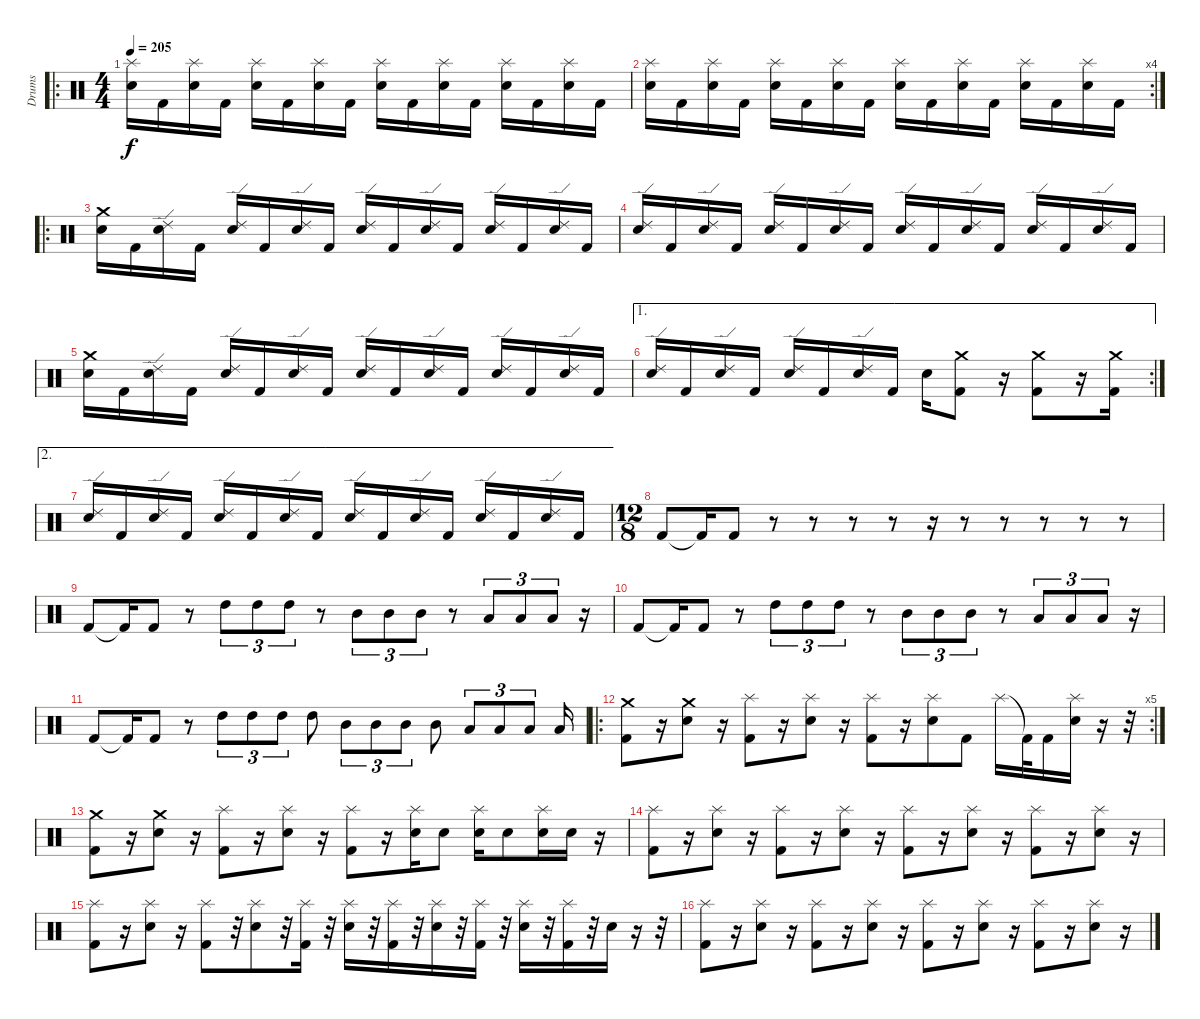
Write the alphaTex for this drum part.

\track ("Drums" "Drums") {instrument percussion}
\staff {score}
\articulation defaults
\ro
\ts (4 4)
\tempo 205
\clef neutral
\ks c
("Splash (hit)" "Electric Snare (hit)").16{dy f} "Kick (hit) 2".16 ("Splash (hit)" "Electric Snare (hit)").16 "Kick (hit) 2".16 ("Splash (hit)" "Electric Snare (hit)").16 "Kick (hit) 2".16 ("Splash (hit)" "Electric Snare (hit)").16 "Kick (hit) 2".16 ("Splash (hit)" "Electric Snare (hit)").16 "Kick (hit) 2".16 ("Splash (hit)" "Electric Snare (hit)").16 "Kick (hit) 2".16 ("Splash (hit)" "Electric Snare (hit)").16 "Kick (hit) 2".16 ("Splash (hit)" "Electric Snare (hit)").16 "Kick (hit) 2".16 |
\rc 4
("Splash (hit)" "Electric Snare (hit)").16 "Kick (hit) 2".16 ("Splash (hit)" "Electric Snare (hit)").16 "Kick (hit) 2".16 ("Splash (hit)" "Electric Snare (hit)").16 "Kick (hit) 2".16 ("Splash (hit)" "Electric Snare (hit)").16 "Kick (hit) 2".16 ("Splash (hit)" "Electric Snare (hit)").16 "Kick (hit) 2".16 ("Splash (hit)" "Electric Snare (hit)").16 "Kick (hit) 2".16 ("Splash (hit)" "Electric Snare (hit)").16 "Kick (hit) 2".16 ("Splash (hit)" "Electric Snare (hit)").16 "Kick (hit) 2".16 |
\ro
("Crash medium (hit)" "Electric Snare (hit)").16 "Kick (hit) 2".16 ("Ride (edge) 2" "Electric Snare (hit)").16 "Kick (hit) 2".16 ("Ride (edge) 2" "Electric Snare (hit)").16 "Kick (hit) 2".16 ("Ride (edge) 2" "Electric Snare (hit)").16 "Kick (hit) 2".16 ("Ride (edge) 2" "Electric Snare (hit)").16 "Kick (hit) 2".16 ("Ride (edge) 2" "Electric Snare (hit)").16 "Kick (hit) 2".16 ("Ride (edge) 2" "Electric Snare (hit)").16 "Kick (hit) 2".16 ("Ride (edge) 2" "Electric Snare (hit)").16 "Kick (hit) 2".16 |
("Ride (edge) 2" "Electric Snare (hit)").16 "Kick (hit) 2".16 ("Ride (edge) 2" "Electric Snare (hit)").16 "Kick (hit) 2".16 ("Ride (edge) 2" "Electric Snare (hit)").16 "Kick (hit) 2".16 ("Ride (edge) 2" "Electric Snare (hit)").16 "Kick (hit) 2".16 ("Ride (edge) 2" "Electric Snare (hit)").16 "Kick (hit) 2".16 ("Ride (edge) 2" "Electric Snare (hit)").16 "Kick (hit) 2".16 ("Ride (edge) 2" "Electric Snare (hit)").16 "Kick (hit) 2".16 ("Ride (edge) 2" "Electric Snare (hit)").16 "Kick (hit) 2".16 |
("Crash medium (hit)" "Electric Snare (hit)").16 "Kick (hit) 2".16 ("Ride (edge) 2" "Electric Snare (hit)").16 "Kick (hit) 2".16 ("Ride (edge) 2" "Electric Snare (hit)").16 "Kick (hit) 2".16 ("Ride (edge) 2" "Electric Snare (hit)").16 "Kick (hit) 2".16 ("Ride (edge) 2" "Electric Snare (hit)").16 "Kick (hit) 2".16 ("Ride (edge) 2" "Electric Snare (hit)").16 "Kick (hit) 2".16 ("Ride (edge) 2" "Electric Snare (hit)").16 "Kick (hit) 2".16 ("Ride (edge) 2" "Electric Snare (hit)").16 "Kick (hit) 2".16 |
\ae 1
\rc 2
("Ride (edge) 2" "Electric Snare (hit)").16 "Kick (hit) 2".16 ("Ride (edge) 2" "Electric Snare (hit)").16 "Kick (hit) 2".16 ("Ride (edge) 2" "Electric Snare (hit)").16 "Kick (hit) 2".16 ("Ride (edge) 2" "Electric Snare (hit)").16 "Kick (hit) 2".16 "Electric Snare (hit)".16 ("Crash medium (hit)" "Kick (hit) 2").8 r.16 ("Crash medium (hit)" "Kick (hit) 2").8 r.16 ("Crash medium (hit)" "Kick (hit) 2").16 |
\ae 2
("Ride (edge) 2" "Electric Snare (hit)").16 "Kick (hit) 2".16 ("Ride (edge) 2" "Electric Snare (hit)").16 "Kick (hit) 2".16 ("Ride (edge) 2" "Electric Snare (hit)").16 "Kick (hit) 2".16 ("Ride (edge) 2" "Electric Snare (hit)").16 "Kick (hit) 2".16 ("Ride (edge) 2" "Electric Snare (hit)").16 "Kick (hit) 2".16 ("Ride (edge) 2" "Electric Snare (hit)").16 "Kick (hit) 2".16 ("Ride (edge) 2" "Electric Snare (hit)").16 "Kick (hit) 2".16 ("Ride (edge) 2" "Electric Snare (hit)").16 "Kick (hit) 2".16 |
\ts (12 8)
"Kick (hit) 2".8 "Kick (hit) 2"{t}.16 "Kick (hit) 2".8 r.8 r.8 r.8 r.8 r.16 r.8 r.8 r.8 r.8 r.8 |
"Kick (hit) 2".8 "Kick (hit) 2"{t}.16 "Kick (hit) 2".8 r.8 "High Tom (hit)".8{tu (3 2)} "High Tom (hit)".8{tu (3 2)} "High Tom (hit)".8{tu (3 2)} r.8 "Mid Tom (hit)".8{tu (3 2)} "Mid Tom (hit)".8{tu (3 2)} "Mid Tom (hit)".8{tu (3 2)} r.8 "Low Tom (hit)".8{tu (3 2)} "Low Tom (hit)".8{tu (3 2)} "Low Tom (hit)".8{tu (3 2)} r.16 |
"Kick (hit) 2".8 "Kick (hit) 2"{t}.16 "Kick (hit) 2".8 r.8 "High Tom (hit)".8{tu (3 2)} "High Tom (hit)".8{tu (3 2)} "High Tom (hit)".8{tu (3 2)} r.8 "Mid Tom (hit)".8{tu (3 2)} "Mid Tom (hit)".8{tu (3 2)} "Mid Tom (hit)".8{tu (3 2)} r.8 "Low Tom (hit)".8{tu (3 2)} "Low Tom (hit)".8{tu (3 2)} "Low Tom (hit)".8{tu (3 2)} r.16 |
"Kick (hit) 2".8 "Kick (hit) 2"{t}.16 "Kick (hit) 2".8 r.8 "High Tom (hit)".8{tu (3 2)} "High Tom (hit)".8{tu (3 2)} "High Tom (hit)".8{tu (3 2)} "High Tom (hit)".8 "Mid Tom (hit)".8{tu (3 2)} "Mid Tom (hit)".8{tu (3 2)} "Mid Tom (hit)".8{tu (3 2)} "Mid Tom (hit)".8 "Low Tom (hit)".8{tu (3 2)} "Low Tom (hit)".8{tu (3 2)} "Low Tom (hit)".8{tu (3 2)} "Low Tom (hit)".16 |
\ro
\rc 5
("Crash medium (hit)" "Kick (hit) 2").8 r.16 ("Crash medium (hit)" "Electric Snare (hit)").8 r.16 ("Splash (hit)" "Kick (hit) 2").8 r.16 ("Splash (hit)" "Electric Snare (hit)").8 r.16 ("Splash (hit)" "Kick (hit) 2").8 r.16 ("Splash (hit)" "Electric Snare (hit)").8 "Kick (hit) 2".8 "Splash (hit)".16 "Kick (hit) 2"{t}.32 "Kick (hit) 2".16 ("Splash (hit)" "Electric Snare (hit)").16 r.16 r.32 |
("Crash medium (hit)" "Kick (hit) 2").8 r.16 ("Crash medium (hit)" "Electric Snare (hit)").8 r.16 ("Splash (hit)" "Kick (hit) 2").8 r.16 ("Splash (hit)" "Electric Snare (hit)").8 r.16 ("Splash (hit)" "Kick (hit) 2").8 r.16 ("Splash (hit)" "Electric Snare (hit)").16 "Electric Snare (hit)".8 ("Splash (hit)" "Electric Snare (hit)").16 "Electric Snare (hit)".8 ("Splash (hit)" "Electric Snare (hit)").16 "Electric Snare (hit)".16 r.16 |
("Splash (hit)" "Kick (hit) 2").8 r.16 ("Splash (hit)" "Electric Snare (hit)").8 r.16 ("Splash (hit)" "Kick (hit) 2").8 r.16 ("Splash (hit)" "Electric Snare (hit)").8 r.16 ("Splash (hit)" "Kick (hit) 2").8 r.16 ("Splash (hit)" "Electric Snare (hit)").8 r.16 ("Splash (hit)" "Kick (hit) 2").8 r.16 ("Splash (hit)" "Electric Snare (hit)").8 r.16 |
("Splash (hit)" "Kick (hit) 2").8 r.16 ("Splash (hit)" "Electric Snare (hit)").8 r.16 ("Splash (hit)" "Kick (hit) 2").8 r.32 ("Splash (hit)" "Electric Snare (hit)").8 r.32 ("Splash (hit)" "Kick (hit) 2").16 r.32 ("Splash (hit)" "Electric Snare (hit)").16 r.32 ("Splash (hit)" "Kick (hit) 2").16 r.32 ("Splash (hit)" "Electric Snare (hit)").16 r.32 ("Splash (hit)" "Kick (hit) 2").16 r.32 ("Splash (hit)" "Electric Snare (hit)").16 r.32 ("Splash (hit)" "Kick (hit) 2").16 r.32 "Electric Snare (hit)".16 r.16 r.32 |
("Splash (hit)" "Kick (hit) 2").8 r.16 ("Splash (hit)" "Electric Snare (hit)").8 r.16 ("Splash (hit)" "Kick (hit) 2").8 r.16 ("Splash (hit)" "Electric Snare (hit)").8 r.16 ("Splash (hit)" "Kick (hit) 2").8 r.16 ("Splash (hit)" "Electric Snare (hit)").8 r.16 ("Splash (hit)" "Kick (hit) 2").8 r.16 ("Splash (hit)" "Electric Snare (hit)").8 r.16
